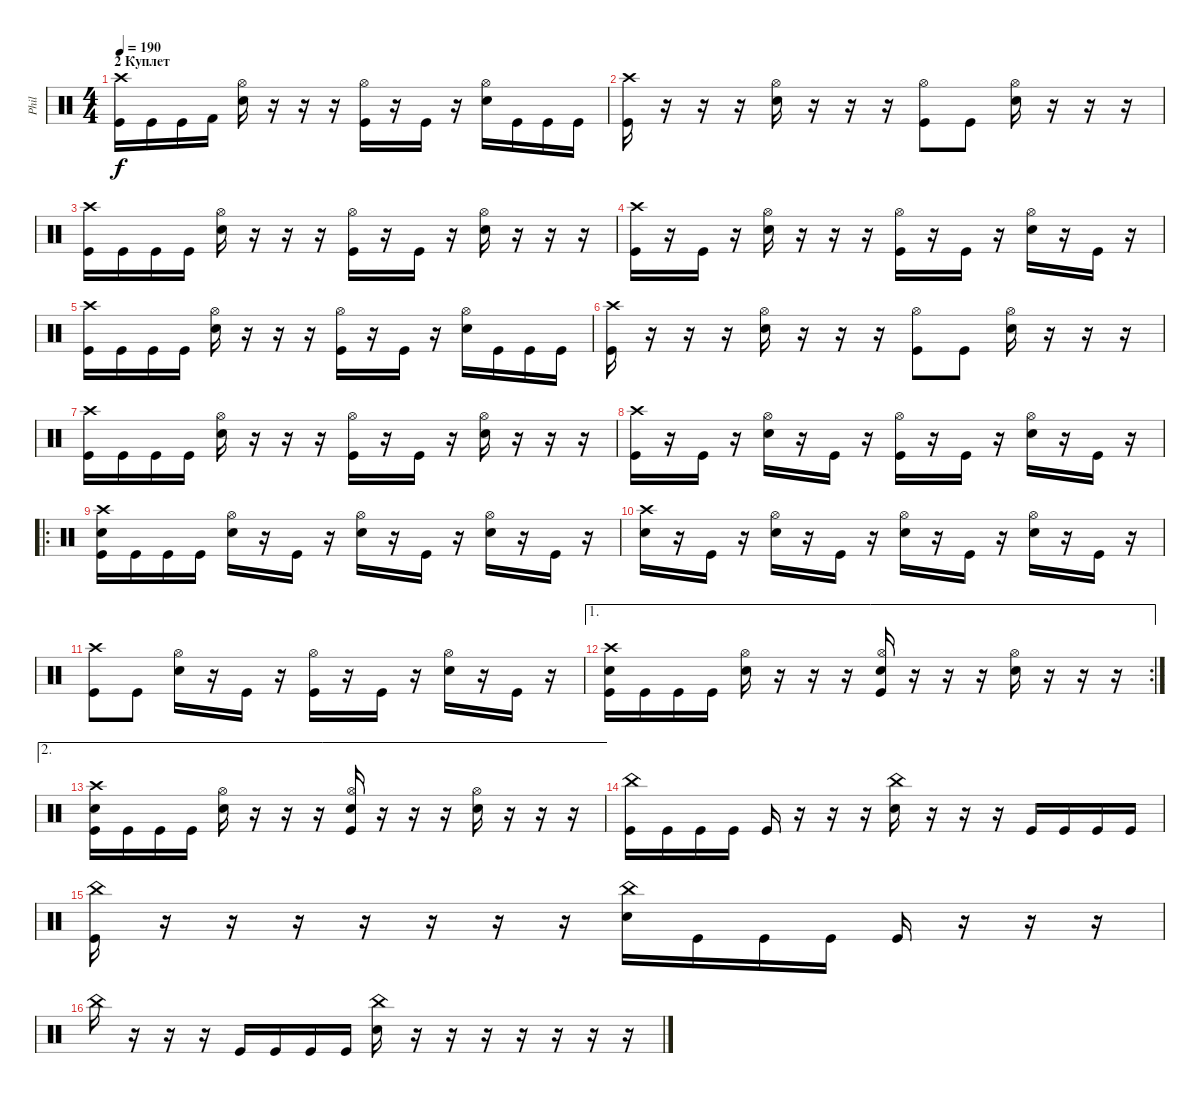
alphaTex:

\track ("Phil" "Phil") {instrument percussion}
\staff {score}
\articulation defaults
\ts (4 4)
\section ("" "2 Куплет")
\tempo 190
\clef neutral
\ks c
("Crash high (hit)" "Kick (hit)").16{dy f} "Kick (hit)".16 "Kick (hit)".16 "Kick (hit) 2".16 ("Hi-Hat (open)" "Electric Snare (hit)").16 r.16 r.16 r.16 ("Hi-Hat (open)" "Kick (hit)").16 r.16 "Kick (hit)".16 r.16 ("Hi-Hat (open)" "Electric Snare (hit)").16 "Kick (hit)".16 "Kick (hit)".16 "Kick (hit)".16 |
("Crash high (hit)" "Kick (hit)").16 r.16 r.16 r.16 ("Hi-Hat (open)" "Electric Snare (hit)").16 r.16 r.16 r.16 ("Hi-Hat (open)" "Kick (hit)").8 "Kick (hit)".8 ("Hi-Hat (open)" "Electric Snare (hit)").16 r.16 r.16 r.16 |
("Crash high (hit)" "Kick (hit)").16 "Kick (hit)".16 "Kick (hit)".16 "Kick (hit)".16 ("Hi-Hat (open)" "Electric Snare (hit)").16 r.16 r.16 r.16 ("Hi-Hat (open)" "Kick (hit)").16 r.16 "Kick (hit)".16 r.16 ("Hi-Hat (open)" "Electric Snare (hit)").16 r.16 r.16 r.16 |
("Crash high (hit)" "Kick (hit)").16 r.16 "Kick (hit)".16 r.16 ("Hi-Hat (open)" "Electric Snare (hit)").16 r.16 r.16 r.16 ("Hi-Hat (open)" "Kick (hit)").16 r.16 "Kick (hit)".16 r.16 ("Hi-Hat (open)" "Electric Snare (hit)").16 r.16 "Kick (hit)".16 r.16 |
("Crash high (hit)" "Kick (hit)").16 "Kick (hit)".16 "Kick (hit)".16 "Kick (hit)".16 ("Hi-Hat (open)" "Electric Snare (hit)").16 r.16 r.16 r.16 ("Hi-Hat (open)" "Kick (hit)").16 r.16 "Kick (hit)".16 r.16 ("Hi-Hat (open)" "Electric Snare (hit)").16 "Kick (hit)".16 "Kick (hit)".16 "Kick (hit)".16 |
("Crash high (hit)" "Kick (hit)").16 r.16 r.16 r.16 ("Hi-Hat (open)" "Electric Snare (hit)").16 r.16 r.16 r.16 ("Hi-Hat (open)" "Kick (hit)").8 "Kick (hit)".8 ("Hi-Hat (open)" "Electric Snare (hit)").16 r.16 r.16 r.16 |
("Crash high (hit)" "Kick (hit)").16 "Kick (hit)".16 "Kick (hit)".16 "Kick (hit)".16 ("Hi-Hat (open)" "Electric Snare (hit)").16 r.16 r.16 r.16 ("Hi-Hat (open)" "Kick (hit)").16 r.16 "Kick (hit)".16 r.16 ("Hi-Hat (open)" "Electric Snare (hit)").16 r.16 r.16 r.16 |
("Crash high (hit)" "Kick (hit)").16 r.16 "Kick (hit)".16 r.16 ("Hi-Hat (open)" "Electric Snare (hit)").16 r.16 "Kick (hit)".16 r.16 ("Hi-Hat (open)" "Kick (hit)").16 r.16 "Kick (hit)".16 r.16 ("Hi-Hat (open)" "Electric Snare (hit)").16 r.16 "Kick (hit)".16 r.16 |
\ro
("Crash high (hit)" "Electric Snare (hit)" "Kick (hit)").16 "Kick (hit)".16 "Kick (hit)".16 "Kick (hit)".16 ("Hi-Hat (open)" "Electric Snare (hit)").16 r.16 "Kick (hit)".16 r.16 ("Hi-Hat (open)" "Electric Snare (hit)").16 r.16 "Kick (hit)".16 r.16 ("Hi-Hat (open)" "Electric Snare (hit)").16 r.16 "Kick (hit)".16 r.16 |
("Crash high (hit)" "Electric Snare (hit)").16 r.16 "Kick (hit)".16 r.16 ("Hi-Hat (open)" "Electric Snare (hit)").16 r.16 "Kick (hit)".16 r.16 ("Hi-Hat (open)" "Electric Snare (hit)").16 r.16 "Kick (hit)".16 r.16 ("Hi-Hat (open)" "Electric Snare (hit)").16 r.16 "Kick (hit)".16 r.16 |
("Crash high (hit)" "Kick (hit)").8 "Kick (hit)".8 ("Hi-Hat (open)" "Electric Snare (hit)").16 r.16 "Kick (hit)".16 r.16 ("Hi-Hat (open)" "Kick (hit)").16 r.16 "Kick (hit)".16 r.16 ("Hi-Hat (open)" "Electric Snare (hit)").16 r.16 "Kick (hit)".16 r.16 |
\ae 1
\rc 2
("Crash high (hit)" "Electric Snare (hit)" "Kick (hit)").16 "Kick (hit)".16 "Kick (hit)".16 "Kick (hit)".16 ("Hi-Hat (open)" "Electric Snare (hit)").16 r.16 r.16 r.16 ("Hi-Hat (open)" "Electric Snare (hit)" "Kick (hit)").16 r.16 r.16 r.16 ("Hi-Hat (open)" "Electric Snare (hit)").16 r.16 r.16 r.16 |
\ae 2
("Crash high (hit)" "Electric Snare (hit)" "Kick (hit)").16 "Kick (hit)".16 "Kick (hit)".16 "Kick (hit)".16 ("Hi-Hat (open)" "Electric Snare (hit)").16 r.16 r.16 r.16 ("Hi-Hat (open)" "Electric Snare (hit)" "Kick (hit)").16 r.16 r.16 r.16 ("Hi-Hat (open)" "Electric Snare (hit)").16 r.16 r.16 r.16 |
("China (hit)" "Kick (hit)").16 "Kick (hit)".16 "Kick (hit)".16 "Kick (hit)".16 "Kick (hit)".16 r.16 r.16 r.16 ("China (hit)" "Electric Snare (hit)").16 r.16 r.16 r.16 "Kick (hit)".16 "Kick (hit)".16 "Kick (hit)".16 "Kick (hit)".16 |
("China (hit)" "Kick (hit)").16 r.16 r.16 r.16 r.16 r.16 r.16 r.16 ("China (hit)" "Electric Snare (hit)").16 "Kick (hit)".16 "Kick (hit)".16 "Kick (hit)".16 "Kick (hit)".16 r.16 r.16 r.16 |
"China (hit)".16 r.16 r.16 r.16 "Kick (hit)".16 "Kick (hit)".16 "Kick (hit)".16 "Kick (hit)".16 ("China (hit)" "Electric Snare (hit)").16 r.16 r.16 r.16 r.16 r.16 r.16 r.16
